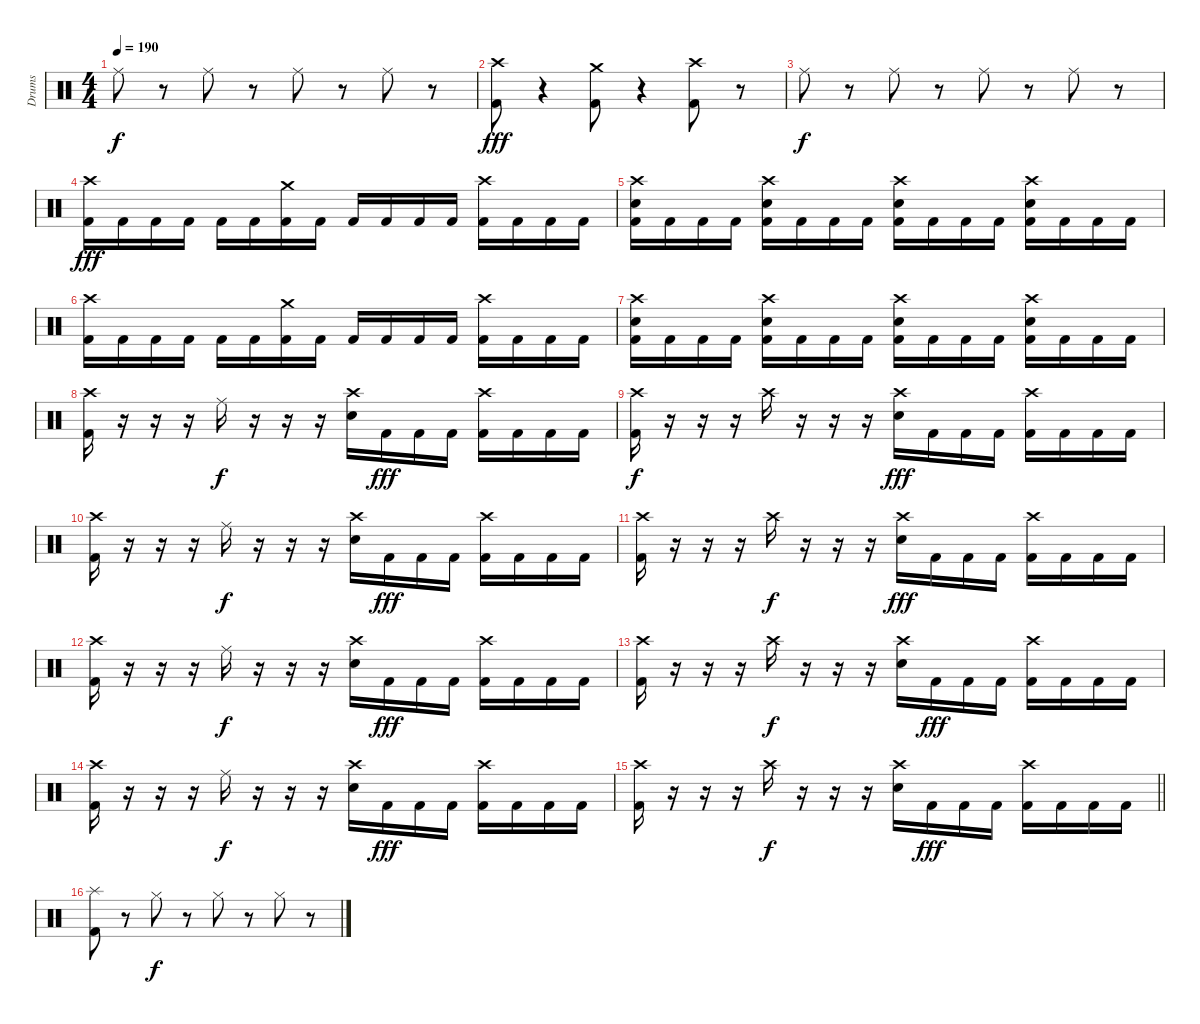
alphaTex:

\track ("Drums" "Drums") {instrument percussion}
\staff {score}
\articulation defaults
\ts (4 4)
\tempo 190
\clef neutral
\ks c "Ride (middle)".8{dy f}
r.8 "Ride (middle)".8 r.8 "Ride (middle)".8 r.8 "Ride (middle)".8 r.8 |
("Crash high (hit)" "Kick (hit) 2").8{dy fff} r.4 ("Crash medium (hit)" "Kick (hit) 2").8 r.4 ("Crash high (hit)" "Kick (hit) 2").8 r.8 |
"Ride (middle)".8{dy f} r.8 "Ride (middle)".8 r.8 "Ride (middle)".8 r.8 "Ride (middle)".8 r.8 |
("Crash high (hit)" "Kick (hit) 2").16{dy fff} "Kick (hit) 2".16 "Kick (hit) 2".16 "Kick (hit) 2".16 "Kick (hit) 2".16 "Kick (hit) 2".16 ("Crash medium (hit)" "Kick (hit) 2").16 "Kick (hit) 2".16 "Kick (hit) 2".16 "Kick (hit) 2".16 "Kick (hit) 2".16 "Kick (hit) 2".16 ("Crash high (hit)" "Kick (hit) 2").16 "Kick (hit) 2".16 "Kick (hit) 2".16 "Kick (hit) 2".16 |
("Crash high (hit)" "Electric Snare (hit)" "Kick (hit) 2").16 "Kick (hit) 2".16 "Kick (hit) 2".16 "Kick (hit) 2".16 ("Crash high (hit)" "Electric Snare (hit)" "Kick (hit) 2").16 "Kick (hit) 2".16 "Kick (hit) 2".16 "Kick (hit) 2".16 ("Crash high (hit)" "Electric Snare (hit)" "Kick (hit) 2").16 "Kick (hit) 2".16 "Kick (hit) 2".16 "Kick (hit) 2".16 ("Crash high (hit)" "Electric Snare (hit)" "Kick (hit) 2").16 "Kick (hit) 2".16 "Kick (hit) 2".16 "Kick (hit) 2".16 |
("Crash high (hit)" "Kick (hit) 2").16 "Kick (hit) 2".16 "Kick (hit) 2".16 "Kick (hit) 2".16 "Kick (hit) 2".16 "Kick (hit) 2".16 ("Crash medium (hit)" "Kick (hit) 2").16 "Kick (hit) 2".16 "Kick (hit) 2".16 "Kick (hit) 2".16 "Kick (hit) 2".16 "Kick (hit) 2".16 ("Crash high (hit)" "Kick (hit) 2").16 "Kick (hit) 2".16 "Kick (hit) 2".16 "Kick (hit) 2".16 |
("Crash high (hit)" "Electric Snare (hit)" "Kick (hit) 2").16 "Kick (hit) 2".16 "Kick (hit) 2".16 "Kick (hit) 2".16 ("Crash high (hit)" "Electric Snare (hit)" "Kick (hit) 2").16 "Kick (hit) 2".16 "Kick (hit) 2".16 "Kick (hit) 2".16 ("Crash high (hit)" "Electric Snare (hit)" "Kick (hit) 2").16 "Kick (hit) 2".16 "Kick (hit) 2".16 "Kick (hit) 2".16 ("Crash high (hit)" "Electric Snare (hit)" "Kick (hit) 2").16 "Kick (hit) 2".16 "Kick (hit) 2".16 "Kick (hit) 2".16 |
("Crash high (hit)" "Kick (hit) 2").16 r.16 r.16 r.16 "Ride (middle)".16{dy f} r.16 r.16 r.16 ("Crash high (hit)" "Electric Snare (hit)").16 "Kick (hit) 2".16{dy fff} "Kick (hit) 2".16 "Kick (hit) 2".16 ("Crash high (hit)" "Kick (hit) 2").16 "Kick (hit) 2".16 "Kick (hit) 2".16 "Kick (hit) 2".16 |
("Crash high (hit)" "Kick (hit) 2").16{dy f} r.16 r.16 r.16 "Crash high (hit)".16 r.16 r.16 r.16 ("Crash high (hit)" "Electric Snare (hit)").16{dy fff} "Kick (hit) 2".16 "Kick (hit) 2".16 "Kick (hit) 2".16 ("Crash high (hit)" "Kick (hit) 2").16 "Kick (hit) 2".16 "Kick (hit) 2".16 "Kick (hit) 2".16 |
("Crash high (hit)" "Kick (hit) 2").16 r.16 r.16 r.16 "Ride (middle)".16{dy f} r.16 r.16 r.16 ("Crash high (hit)" "Electric Snare (hit)").16 "Kick (hit) 2".16{dy fff} "Kick (hit) 2".16 "Kick (hit) 2".16 ("Crash high (hit)" "Kick (hit) 2").16 "Kick (hit) 2".16 "Kick (hit) 2".16 "Kick (hit) 2".16 |
("Crash high (hit)" "Kick (hit) 2").16 r.16 r.16 r.16 "Crash high (hit)".16{dy f} r.16 r.16 r.16 ("Crash high (hit)" "Electric Snare (hit)").16{dy fff} "Kick (hit) 2".16 "Kick (hit) 2".16 "Kick (hit) 2".16 ("Crash high (hit)" "Kick (hit) 2").16 "Kick (hit) 2".16 "Kick (hit) 2".16 "Kick (hit) 2".16 |
("Crash high (hit)" "Kick (hit) 2").16 r.16 r.16 r.16 "Ride (middle)".16{dy f} r.16 r.16 r.16 ("Crash high (hit)" "Electric Snare (hit)").16 "Kick (hit) 2".16{dy fff} "Kick (hit) 2".16 "Kick (hit) 2".16 ("Crash high (hit)" "Kick (hit) 2").16 "Kick (hit) 2".16 "Kick (hit) 2".16 "Kick (hit) 2".16 |
("Crash high (hit)" "Kick (hit) 2").16 r.16 r.16 r.16 "Crash high (hit)".16{dy f} r.16 r.16 r.16 ("Crash high (hit)" "Electric Snare (hit)").16 "Kick (hit) 2".16{dy fff} "Kick (hit) 2".16 "Kick (hit) 2".16 ("Crash high (hit)" "Kick (hit) 2").16 "Kick (hit) 2".16 "Kick (hit) 2".16 "Kick (hit) 2".16 |
("Crash high (hit)" "Kick (hit) 2").16 r.16 r.16 r.16 "Ride (middle)".16{dy f} r.16 r.16 r.16 ("Crash high (hit)" "Electric Snare (hit)").16 "Kick (hit) 2".16{dy fff} "Kick (hit) 2".16 "Kick (hit) 2".16 ("Crash high (hit)" "Kick (hit) 2").16 "Kick (hit) 2".16 "Kick (hit) 2".16 "Kick (hit) 2".16 |
\barLineRight lightlight
("Crash high (hit)" "Kick (hit) 2").16 r.16 r.16 r.16 "Crash high (hit)".16{dy f} r.16 r.16 r.16 ("Crash high (hit)" "Electric Snare (hit)").16 "Kick (hit) 2".16{dy fff} "Kick (hit) 2".16 "Kick (hit) 2".16 ("Crash high (hit)" "Kick (hit) 2").16 "Kick (hit) 2".16 "Kick (hit) 2".16 "Kick (hit) 2".16 |
\section ("" "")
("Splash (hit)" "Kick (hit) 2").8 r.8 "Hi-Hat (closed)".8{dy f} r.8 "Hi-Hat (closed)".8 r.8 "Hi-Hat (closed)".8 r.8
